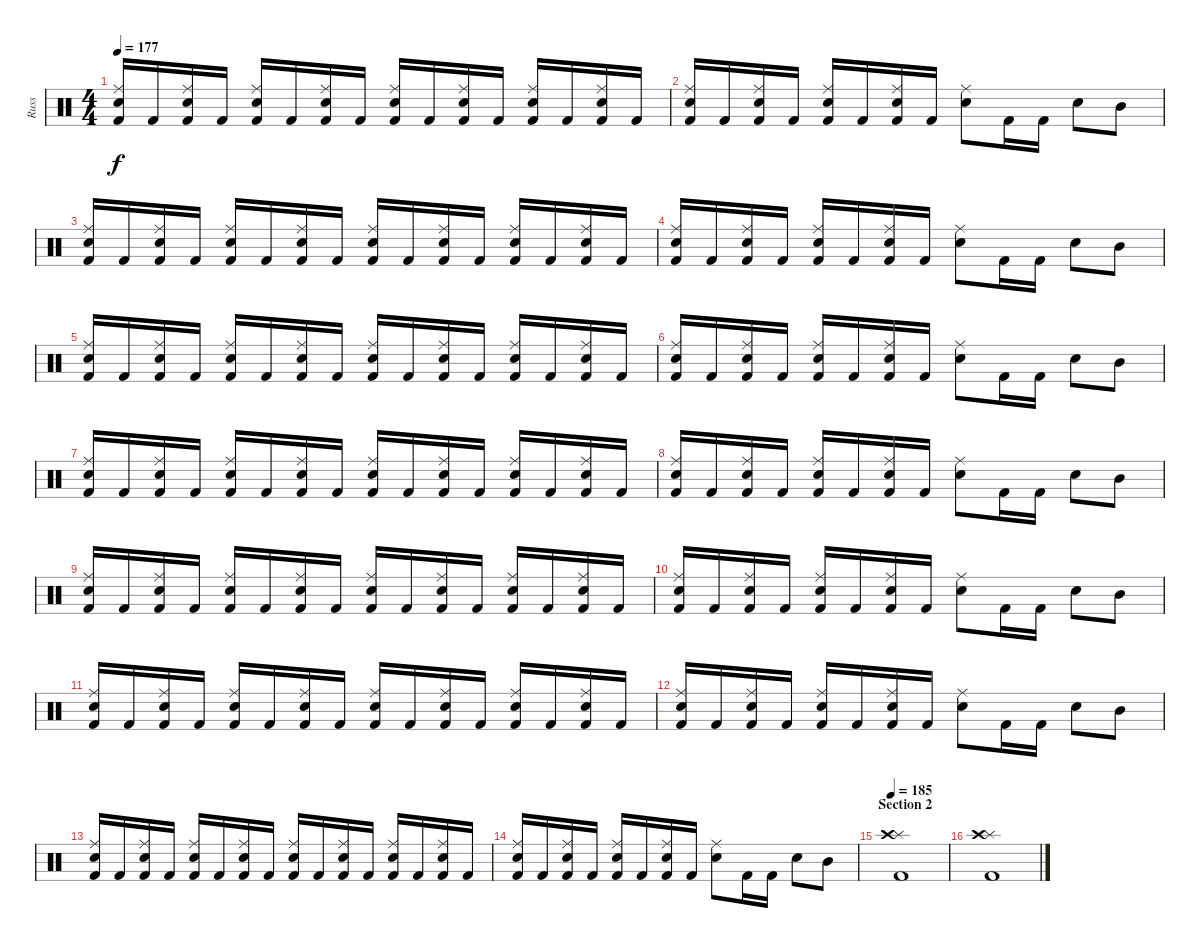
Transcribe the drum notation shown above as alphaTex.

\track ("Russ" "Russ") {instrument percussion}
\staff {score}
\articulation defaults
\ts (4 4)
\tempo 177
\clef neutral
\ks c
("Snare (hit) 2" "Ride (middle)" "Kick (hit) 2").16{dy f} "Kick (hit) 2".16 ("Snare (hit) 2" "Ride (middle)" "Kick (hit) 2").16 "Kick (hit) 2".16 ("Snare (hit) 2" "Ride (middle)" "Kick (hit) 2").16 "Kick (hit) 2".16 ("Snare (hit) 2" "Ride (middle)" "Kick (hit) 2").16 "Kick (hit) 2".16 ("Snare (hit) 2" "Ride (middle)" "Kick (hit) 2").16 "Kick (hit) 2".16 ("Snare (hit) 2" "Ride (middle)" "Kick (hit) 2").16 "Kick (hit) 2".16 ("Snare (hit) 2" "Ride (middle)" "Kick (hit) 2").16 "Kick (hit) 2".16 ("Snare (hit) 2" "Ride (middle)" "Kick (hit) 2").16 "Kick (hit) 2".16 |
("Snare (hit) 2" "Ride (middle)" "Kick (hit) 2").16 "Kick (hit) 2".16 ("Snare (hit) 2" "Ride (middle)" "Kick (hit) 2").16 "Kick (hit) 2".16 ("Snare (hit) 2" "Ride (middle)" "Kick (hit) 2").16 "Kick (hit) 2".16 ("Snare (hit) 2" "Ride (middle)" "Kick (hit) 2").16 "Kick (hit) 2".16 ("Snare (hit) 2" "Ride (middle)").8 "Kick (hit) 2".16 "Kick (hit) 2".16 "Snare (hit) 2".8 "Mid Tom (hit)".8 |
("Snare (hit) 2" "Ride (middle)" "Kick (hit) 2").16 "Kick (hit) 2".16 ("Snare (hit) 2" "Ride (middle)" "Kick (hit) 2").16 "Kick (hit) 2".16 ("Snare (hit) 2" "Ride (middle)" "Kick (hit) 2").16 "Kick (hit) 2".16 ("Snare (hit) 2" "Ride (middle)" "Kick (hit) 2").16 "Kick (hit) 2".16 ("Snare (hit) 2" "Ride (middle)" "Kick (hit) 2").16 "Kick (hit) 2".16 ("Snare (hit) 2" "Ride (middle)" "Kick (hit) 2").16 "Kick (hit) 2".16 ("Snare (hit) 2" "Ride (middle)" "Kick (hit) 2").16 "Kick (hit) 2".16 ("Snare (hit) 2" "Ride (middle)" "Kick (hit) 2").16 "Kick (hit) 2".16 |
("Snare (hit) 2" "Ride (middle)" "Kick (hit) 2").16 "Kick (hit) 2".16 ("Snare (hit) 2" "Ride (middle)" "Kick (hit) 2").16 "Kick (hit) 2".16 ("Snare (hit) 2" "Ride (middle)" "Kick (hit) 2").16 "Kick (hit) 2".16 ("Snare (hit) 2" "Ride (middle)" "Kick (hit) 2").16 "Kick (hit) 2".16 ("Snare (hit) 2" "Ride (middle)").8 "Kick (hit) 2".16 "Kick (hit) 2".16 "Snare (hit) 2".8 "Mid Tom (hit)".8 |
("Snare (hit) 2" "Ride (middle)" "Kick (hit) 2").16 "Kick (hit) 2".16 ("Snare (hit) 2" "Ride (middle)" "Kick (hit) 2").16 "Kick (hit) 2".16 ("Snare (hit) 2" "Ride (middle)" "Kick (hit) 2").16 "Kick (hit) 2".16 ("Snare (hit) 2" "Ride (middle)" "Kick (hit) 2").16 "Kick (hit) 2".16 ("Snare (hit) 2" "Ride (middle)" "Kick (hit) 2").16 "Kick (hit) 2".16 ("Snare (hit) 2" "Ride (middle)" "Kick (hit) 2").16 "Kick (hit) 2".16 ("Snare (hit) 2" "Ride (middle)" "Kick (hit) 2").16 "Kick (hit) 2".16 ("Snare (hit) 2" "Ride (middle)" "Kick (hit) 2").16 "Kick (hit) 2".16 |
("Snare (hit) 2" "Ride (middle)" "Kick (hit) 2").16 "Kick (hit) 2".16 ("Snare (hit) 2" "Ride (middle)" "Kick (hit) 2").16 "Kick (hit) 2".16 ("Snare (hit) 2" "Ride (middle)" "Kick (hit) 2").16 "Kick (hit) 2".16 ("Snare (hit) 2" "Ride (middle)" "Kick (hit) 2").16 "Kick (hit) 2".16 ("Snare (hit) 2" "Ride (middle)").8 "Kick (hit) 2".16 "Kick (hit) 2".16 "Snare (hit) 2".8 "Mid Tom (hit)".8 |
("Snare (hit) 2" "Ride (middle)" "Kick (hit) 2").16 "Kick (hit) 2".16 ("Snare (hit) 2" "Ride (middle)" "Kick (hit) 2").16 "Kick (hit) 2".16 ("Snare (hit) 2" "Ride (middle)" "Kick (hit) 2").16 "Kick (hit) 2".16 ("Snare (hit) 2" "Ride (middle)" "Kick (hit) 2").16 "Kick (hit) 2".16 ("Snare (hit) 2" "Ride (middle)" "Kick (hit) 2").16 "Kick (hit) 2".16 ("Snare (hit) 2" "Ride (middle)" "Kick (hit) 2").16 "Kick (hit) 2".16 ("Snare (hit) 2" "Ride (middle)" "Kick (hit) 2").16 "Kick (hit) 2".16 ("Snare (hit) 2" "Ride (middle)" "Kick (hit) 2").16 "Kick (hit) 2".16 |
("Snare (hit) 2" "Ride (middle)" "Kick (hit) 2").16 "Kick (hit) 2".16 ("Snare (hit) 2" "Ride (middle)" "Kick (hit) 2").16 "Kick (hit) 2".16 ("Snare (hit) 2" "Ride (middle)" "Kick (hit) 2").16 "Kick (hit) 2".16 ("Snare (hit) 2" "Ride (middle)" "Kick (hit) 2").16 "Kick (hit) 2".16 ("Snare (hit) 2" "Ride (middle)").8 "Kick (hit) 2".16 "Kick (hit) 2".16 "Snare (hit) 2".8 "Mid Tom (hit)".8 |
("Snare (hit) 2" "Ride (middle)" "Kick (hit) 2").16 "Kick (hit) 2".16 ("Snare (hit) 2" "Ride (middle)" "Kick (hit) 2").16 "Kick (hit) 2".16 ("Snare (hit) 2" "Ride (middle)" "Kick (hit) 2").16 "Kick (hit) 2".16 ("Snare (hit) 2" "Ride (middle)" "Kick (hit) 2").16 "Kick (hit) 2".16 ("Snare (hit) 2" "Ride (middle)" "Kick (hit) 2").16 "Kick (hit) 2".16 ("Snare (hit) 2" "Ride (middle)" "Kick (hit) 2").16 "Kick (hit) 2".16 ("Snare (hit) 2" "Ride (middle)" "Kick (hit) 2").16 "Kick (hit) 2".16 ("Snare (hit) 2" "Ride (middle)" "Kick (hit) 2").16 "Kick (hit) 2".16 |
("Snare (hit) 2" "Ride (middle)" "Kick (hit) 2").16 "Kick (hit) 2".16 ("Snare (hit) 2" "Ride (middle)" "Kick (hit) 2").16 "Kick (hit) 2".16 ("Snare (hit) 2" "Ride (middle)" "Kick (hit) 2").16 "Kick (hit) 2".16 ("Snare (hit) 2" "Ride (middle)" "Kick (hit) 2").16 "Kick (hit) 2".16 ("Snare (hit) 2" "Ride (middle)").8 "Kick (hit) 2".16 "Kick (hit) 2".16 "Snare (hit) 2".8 "Mid Tom (hit)".8 |
("Snare (hit) 2" "Ride (middle)" "Kick (hit) 2").16 "Kick (hit) 2".16 ("Snare (hit) 2" "Ride (middle)" "Kick (hit) 2").16 "Kick (hit) 2".16 ("Snare (hit) 2" "Ride (middle)" "Kick (hit) 2").16 "Kick (hit) 2".16 ("Snare (hit) 2" "Ride (middle)" "Kick (hit) 2").16 "Kick (hit) 2".16 ("Snare (hit) 2" "Ride (middle)" "Kick (hit) 2").16 "Kick (hit) 2".16 ("Snare (hit) 2" "Ride (middle)" "Kick (hit) 2").16 "Kick (hit) 2".16 ("Snare (hit) 2" "Ride (middle)" "Kick (hit) 2").16 "Kick (hit) 2".16 ("Snare (hit) 2" "Ride (middle)" "Kick (hit) 2").16 "Kick (hit) 2".16 |
("Snare (hit) 2" "Ride (middle)" "Kick (hit) 2").16 "Kick (hit) 2".16 ("Snare (hit) 2" "Ride (middle)" "Kick (hit) 2").16 "Kick (hit) 2".16 ("Snare (hit) 2" "Ride (middle)" "Kick (hit) 2").16 "Kick (hit) 2".16 ("Snare (hit) 2" "Ride (middle)" "Kick (hit) 2").16 "Kick (hit) 2".16 ("Snare (hit) 2" "Ride (middle)").8 "Kick (hit) 2".16 "Kick (hit) 2".16 "Snare (hit) 2".8 "Mid Tom (hit)".8 |
("Snare (hit) 2" "Ride (middle)" "Kick (hit) 2").16 "Kick (hit) 2".16 ("Snare (hit) 2" "Ride (middle)" "Kick (hit) 2").16 "Kick (hit) 2".16 ("Snare (hit) 2" "Ride (middle)" "Kick (hit) 2").16 "Kick (hit) 2".16 ("Snare (hit) 2" "Ride (middle)" "Kick (hit) 2").16 "Kick (hit) 2".16 ("Snare (hit) 2" "Ride (middle)" "Kick (hit) 2").16 "Kick (hit) 2".16 ("Snare (hit) 2" "Ride (middle)" "Kick (hit) 2").16 "Kick (hit) 2".16 ("Snare (hit) 2" "Ride (middle)" "Kick (hit) 2").16 "Kick (hit) 2".16 ("Snare (hit) 2" "Ride (middle)" "Kick (hit) 2").16 "Kick (hit) 2".16 |
("Snare (hit) 2" "Ride (middle)" "Kick (hit) 2").16 "Kick (hit) 2".16 ("Snare (hit) 2" "Ride (middle)" "Kick (hit) 2").16 "Kick (hit) 2".16 ("Snare (hit) 2" "Ride (middle)" "Kick (hit) 2").16 "Kick (hit) 2".16 ("Snare (hit) 2" "Ride (middle)" "Kick (hit) 2").16 "Kick (hit) 2".16 ("Snare (hit) 2" "Ride (middle)").8 "Kick (hit) 2".16 "Kick (hit) 2".16 "Snare (hit) 2".8 "Mid Tom (hit)".8 |
\section ("" "Section 2")
\tempo 185
("Kick (hit) 2" "Splash (hit)" "Crash high (hit)").1 |
("Kick (hit) 2" "Splash (hit)" "Crash high (hit)").1
